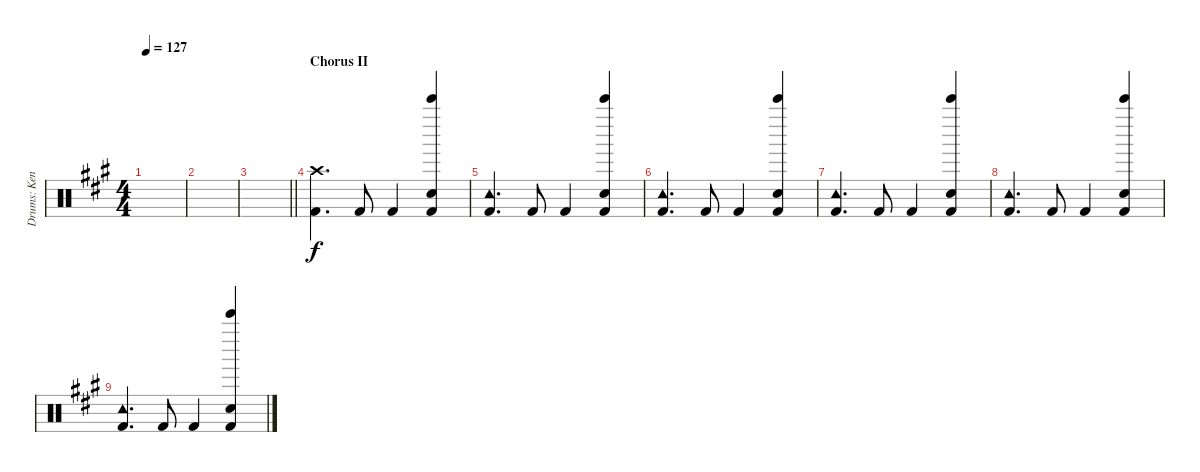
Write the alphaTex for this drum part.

\track ("Drums: Kenny" "Drums: Ken") {instrument percussion}
\staff {score}
\articulation defaults
\ts (4 4)
\tempo 127
\clef neutral
\ks a
|
|
\barLineRight lightlight
|
\section ("" "Chorus II")
("Crash high (hit)" "Kick (hit) 2").4{d} "Kick (hit) 2".8 "Kick (hit) 2".4 ("Bell Tree (hit)" "Snare (hit) 2" "Kick (hit) 2").4 |
("Tambourine (hit)" "Kick (hit) 2").4{d} "Kick (hit) 2".8 "Kick (hit) 2".4 ("Bell Tree (hit)" "Snare (hit) 2" "Kick (hit) 2").4 |
("Tambourine (hit)" "Kick (hit) 2").4{d} "Kick (hit) 2".8 "Kick (hit) 2".4 ("Bell Tree (hit)" "Snare (hit) 2" "Kick (hit) 2").4 |
("Tambourine (hit)" "Kick (hit) 2").4{d} "Kick (hit) 2".8 "Kick (hit) 2".4 ("Bell Tree (hit)" "Snare (hit) 2" "Kick (hit) 2").4 |
("Tambourine (hit)" "Kick (hit) 2").4{d} "Kick (hit) 2".8 "Kick (hit) 2".4 ("Bell Tree (hit)" "Snare (hit) 2" "Kick (hit) 2").4 |
("Tambourine (hit)" "Kick (hit) 2").4{d} "Kick (hit) 2".8 "Kick (hit) 2".4 ("Bell Tree (hit)" "Snare (hit) 2" "Kick (hit) 2").4
